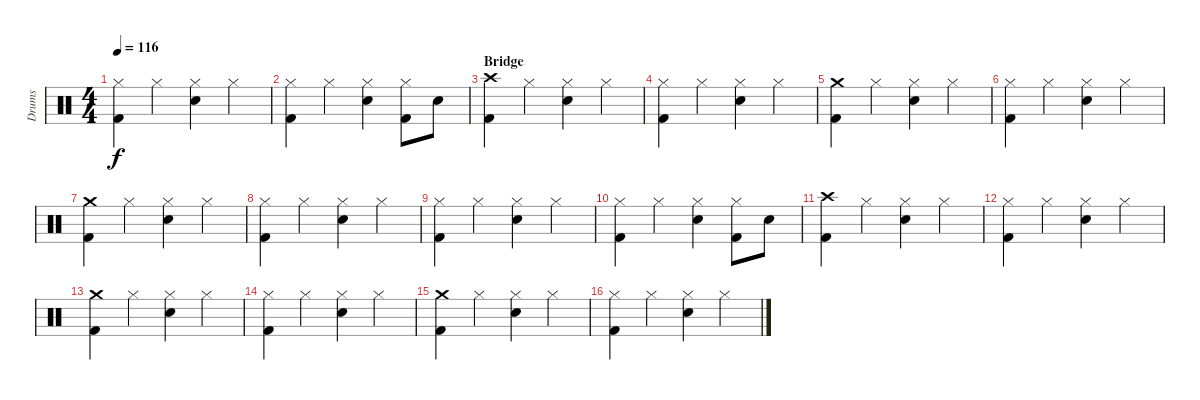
\track ("Drums" "Drums") {instrument percussion}
\staff {score}
\articulation defaults
\ts (4 4)
\tempo 116
\clef neutral
\ks c
("Hi-Hat (closed)" "Kick (hit) 2").4{dy f} "Hi-Hat (closed)".4 ("Hi-Hat (closed)" "Snare (hit) 2").4 "Hi-Hat (closed)".4 |
("Hi-Hat (closed)" "Kick (hit) 2").4 "Hi-Hat (closed)".4 ("Hi-Hat (closed)" "Snare (hit) 2").4 ("Hi-Hat (closed)" "Kick (hit) 2").8 "Snare (hit) 2".8 |
\section ("" "Bridge")
("Crash high (hit)" "Kick (hit) 2").4 "Hi-Hat (closed)".4 ("Hi-Hat (closed)" "Snare (hit) 2").4 "Hi-Hat (closed)".4 |
("Hi-Hat (closed)" "Kick (hit) 2").4 "Hi-Hat (closed)".4 ("Hi-Hat (closed)" "Snare (hit) 2").4 "Hi-Hat (closed)".4 |
("Crash medium (hit)" "Kick (hit) 2").4 "Hi-Hat (closed)".4 ("Hi-Hat (closed)" "Snare (hit) 2").4 "Hi-Hat (closed)".4 |
("Hi-Hat (closed)" "Kick (hit) 2").4 "Hi-Hat (closed)".4 ("Hi-Hat (closed)" "Snare (hit) 2").4 "Hi-Hat (closed)".4 |
("Crash medium (hit)" "Kick (hit) 2").4 "Hi-Hat (closed)".4 ("Hi-Hat (closed)" "Snare (hit) 2").4 "Hi-Hat (closed)".4 |
("Hi-Hat (closed)" "Kick (hit) 2").4 "Hi-Hat (closed)".4 ("Hi-Hat (closed)" "Snare (hit) 2").4 "Hi-Hat (closed)".4 |
("Hi-Hat (closed)" "Kick (hit) 2").4 "Hi-Hat (closed)".4 ("Hi-Hat (closed)" "Snare (hit) 2").4 "Hi-Hat (closed)".4 |
("Hi-Hat (closed)" "Kick (hit) 2").4 "Hi-Hat (closed)".4 ("Hi-Hat (closed)" "Snare (hit) 2").4 ("Hi-Hat (closed)" "Kick (hit) 2").8 "Snare (hit) 2".8 |
("Crash high (hit)" "Kick (hit) 2").4 "Hi-Hat (closed)".4 ("Hi-Hat (closed)" "Snare (hit) 2").4 "Hi-Hat (closed)".4 |
("Hi-Hat (closed)" "Kick (hit) 2").4 "Hi-Hat (closed)".4 ("Hi-Hat (closed)" "Snare (hit) 2").4 "Hi-Hat (closed)".4 |
("Crash medium (hit)" "Kick (hit) 2").4 "Hi-Hat (closed)".4 ("Hi-Hat (closed)" "Snare (hit) 2").4 "Hi-Hat (closed)".4 |
("Hi-Hat (closed)" "Kick (hit) 2").4 "Hi-Hat (closed)".4 ("Hi-Hat (closed)" "Snare (hit) 2").4 "Hi-Hat (closed)".4 |
("Crash medium (hit)" "Kick (hit) 2").4 "Hi-Hat (closed)".4 ("Hi-Hat (closed)" "Snare (hit) 2").4 "Hi-Hat (closed)".4 |
("Hi-Hat (closed)" "Kick (hit) 2").4 "Hi-Hat (closed)".4 ("Hi-Hat (closed)" "Snare (hit) 2").4 "Hi-Hat (closed)".4
